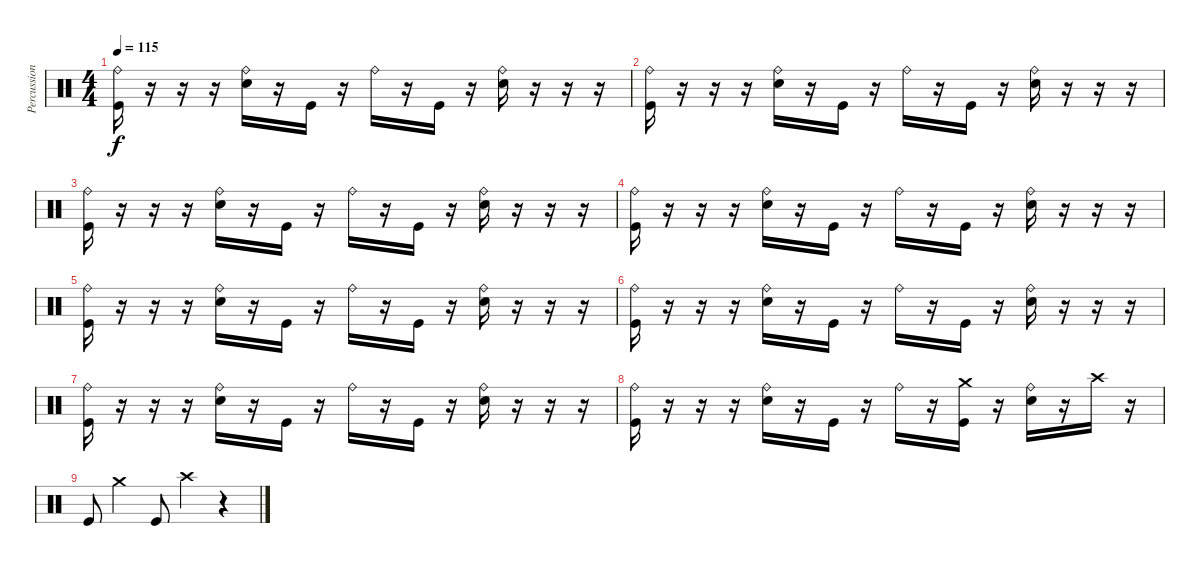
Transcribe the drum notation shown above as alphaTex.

\track ("Percussion" "Percussion") {instrument percussion}
\staff {score}
\articulation defaults
\ts (4 4)
\tempo 115
\clef neutral
\ks c
("Ride (bell)" "Kick (hit)").16{dy f} r.16 r.16 r.16 ("Ride (bell)" "Snare (hit) 2").16 r.16 "Kick (hit)".16 r.16 "Ride (bell)".16 r.16 "Kick (hit)".16 r.16 ("Ride (bell)" "Snare (hit) 2").16 r.16 r.16 r.16 |
("Ride (bell)" "Kick (hit)").16 r.16 r.16 r.16 ("Ride (bell)" "Snare (hit) 2").16 r.16 "Kick (hit)".16 r.16 "Ride (bell)".16 r.16 "Kick (hit)".16 r.16 ("Ride (bell)" "Snare (hit) 2").16 r.16 r.16 r.16 |
("Ride (bell)" "Kick (hit)").16 r.16 r.16 r.16 ("Ride (bell)" "Snare (hit) 2").16 r.16 "Kick (hit)".16 r.16 "Ride (bell)".16 r.16 "Kick (hit)".16 r.16 ("Ride (bell)" "Snare (hit) 2").16 r.16 r.16 r.16 |
("Ride (bell)" "Kick (hit)").16 r.16 r.16 r.16 ("Ride (bell)" "Snare (hit) 2").16 r.16 "Kick (hit)".16 r.16 "Ride (bell)".16 r.16 "Kick (hit)".16 r.16 ("Ride (bell)" "Snare (hit) 2").16 r.16 r.16 r.16 |
("Ride (bell)" "Kick (hit)").16 r.16 r.16 r.16 ("Ride (bell)" "Snare (hit) 2").16 r.16 "Kick (hit)".16 r.16 "Ride (bell)".16 r.16 "Kick (hit)".16 r.16 ("Ride (bell)" "Snare (hit) 2").16 r.16 r.16 r.16 |
("Ride (bell)" "Kick (hit)").16 r.16 r.16 r.16 ("Ride (bell)" "Snare (hit) 2").16 r.16 "Kick (hit)".16 r.16 "Ride (bell)".16 r.16 "Kick (hit)".16 r.16 ("Ride (bell)" "Snare (hit) 2").16 r.16 r.16 r.16 |
("Ride (bell)" "Kick (hit)").16 r.16 r.16 r.16 ("Ride (bell)" "Snare (hit) 2").16 r.16 "Kick (hit)".16 r.16 "Ride (bell)".16 r.16 "Kick (hit)".16 r.16 ("Ride (bell)" "Snare (hit) 2").16 r.16 r.16 r.16 |
("Ride (bell)" "Kick (hit)").16 r.16 r.16 r.16 ("Ride (bell)" "Snare (hit) 2").16 r.16 "Kick (hit)".16 r.16 "Ride (bell)".16 r.16 ("Crash medium (hit)" "Kick (hit)").16 r.16 ("Ride (bell)" "Snare (hit) 2").16 r.16 "Crash high (hit)".16 r.16 |
"Kick (hit)".8 "Crash medium (hit)".4 "Kick (hit)".8 "Crash high (hit)".4 r.4
